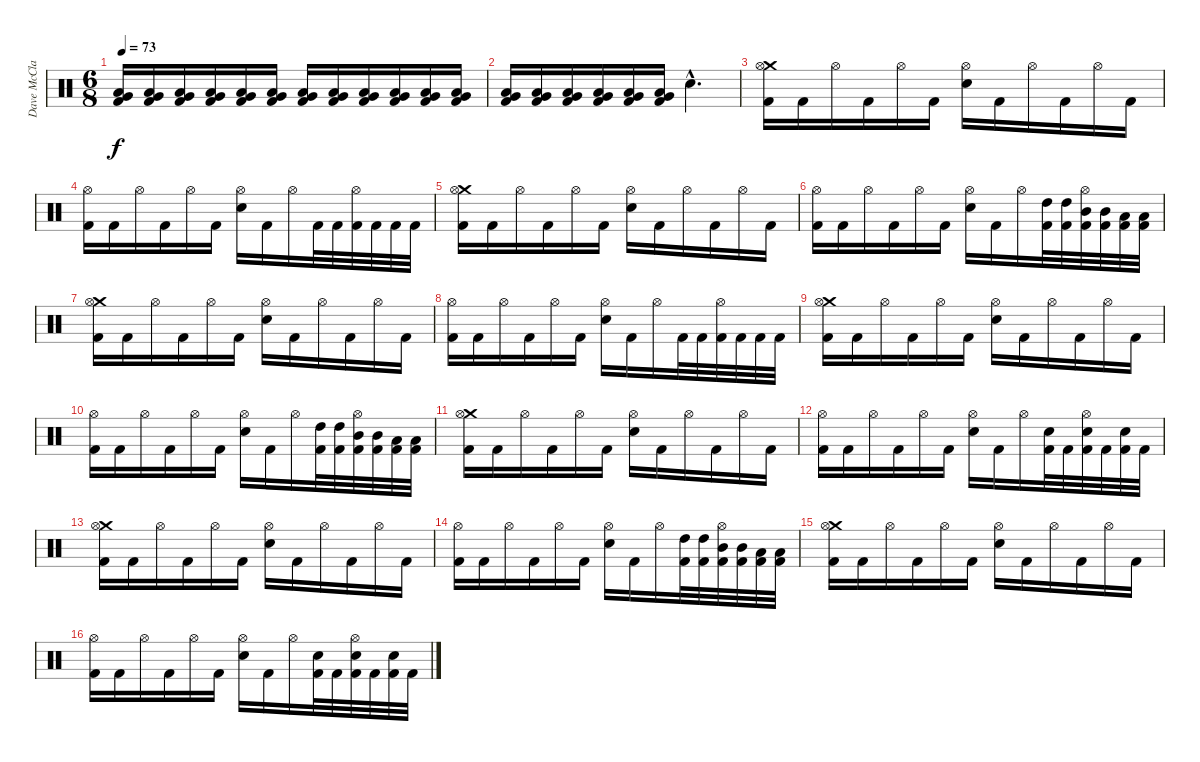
\track ("Dave McClain" "Dave McCla") {instrument percussion}
\staff {score}
\articulation defaults
\ts (6 8)
\tempo 73
\clef neutral
\ks c
("Very Low Tom (hit)" "Low Floor Tom (hit)" "Kick (hit) 2").16{dy f} ("Very Low Tom (hit)" "Low Floor Tom (hit)" "Kick (hit) 2").16 ("Very Low Tom (hit)" "Low Floor Tom (hit)" "Kick (hit) 2").16 ("Very Low Tom (hit)" "Low Floor Tom (hit)" "Kick (hit) 2").16 ("Very Low Tom (hit)" "Low Floor Tom (hit)" "Kick (hit) 2").16 ("Very Low Tom (hit)" "Low Floor Tom (hit)" "Kick (hit) 2").16 ("Very Low Tom (hit)" "Low Floor Tom (hit)" "Kick (hit) 2").16 ("Very Low Tom (hit)" "Low Floor Tom (hit)" "Kick (hit) 2").16 ("Very Low Tom (hit)" "Low Floor Tom (hit)" "Kick (hit) 2").16 ("Very Low Tom (hit)" "Low Floor Tom (hit)" "Kick (hit) 2").16 ("Very Low Tom (hit)" "Low Floor Tom (hit)" "Kick (hit) 2").16 ("Very Low Tom (hit)" "Low Floor Tom (hit)" "Kick (hit) 2").16 |
("Very Low Tom (hit)" "Low Floor Tom (hit)" "Kick (hit) 2").16 ("Very Low Tom (hit)" "Low Floor Tom (hit)" "Kick (hit) 2").16 ("Very Low Tom (hit)" "Low Floor Tom (hit)" "Kick (hit) 2").16 ("Very Low Tom (hit)" "Low Floor Tom (hit)" "Kick (hit) 2").16 ("Very Low Tom (hit)" "Low Floor Tom (hit)" "Kick (hit) 2").16 ("Very Low Tom (hit)" "Low Floor Tom (hit)" "Kick (hit) 2").16 "Snare (hit) 2"{hac}.4{d} |
("Crash medium (hit)" "Hi-Hat (open)" "Kick (hit) 2").16 "Kick (hit) 2".16 "Hi-Hat (open)".16 "Kick (hit) 2".16 "Hi-Hat (open)".16 "Kick (hit) 2".16 ("Hi-Hat (open)" "Snare (hit) 2").16 "Kick (hit) 2".16 "Hi-Hat (open)".16 "Kick (hit) 2".16 "Hi-Hat (open)".16 "Kick (hit) 2".16 |
("Hi-Hat (open)" "Kick (hit) 2").16 "Kick (hit) 2".16 "Hi-Hat (open)".16 "Kick (hit) 2".16 "Hi-Hat (open)".16 "Kick (hit) 2".16 ("Hi-Hat (open)" "Snare (hit) 2").16 "Kick (hit) 2".16 "Hi-Hat (open)".16 "Kick (hit) 2".32 "Kick (hit) 2".32 ("Hi-Hat (open)" "Kick (hit) 2").32 "Kick (hit) 2".32 "Kick (hit) 2".32 "Kick (hit) 2".32 |
("Crash medium (hit)" "Hi-Hat (open)" "Kick (hit) 2").16 "Kick (hit) 2".16 "Hi-Hat (open)".16 "Kick (hit) 2".16 "Hi-Hat (open)".16 "Kick (hit) 2".16 ("Hi-Hat (open)" "Snare (hit) 2").16 "Kick (hit) 2".16 "Hi-Hat (open)".16 "Kick (hit) 2".16 "Hi-Hat (open)".16 "Kick (hit) 2".16 |
("Hi-Hat (open)" "Kick (hit) 2").16 "Kick (hit) 2".16 "Hi-Hat (open)".16 "Kick (hit) 2".16 "Hi-Hat (open)".16 "Kick (hit) 2".16 ("Hi-Hat (open)" "Snare (hit) 2").16 "Kick (hit) 2".16 "Hi-Hat (open)".16 ("High Tom (hit)" "Kick (hit) 2").32 ("High Tom (hit)" "Kick (hit) 2").32 ("Hi-Hat (open)" "Mid Tom (hit)" "Kick (hit) 2").32 ("Mid Tom (hit)" "Kick (hit) 2").32 ("Low Tom (hit)" "Kick (hit) 2").32 ("Low Tom (hit)" "Kick (hit) 2").32 |
("Crash medium (hit)" "Hi-Hat (open)" "Kick (hit) 2").16 "Kick (hit) 2".16 "Hi-Hat (open)".16 "Kick (hit) 2".16 "Hi-Hat (open)".16 "Kick (hit) 2".16 ("Hi-Hat (open)" "Snare (hit) 2").16 "Kick (hit) 2".16 "Hi-Hat (open)".16 "Kick (hit) 2".16 "Hi-Hat (open)".16 "Kick (hit) 2".16 |
("Hi-Hat (open)" "Kick (hit) 2").16 "Kick (hit) 2".16 "Hi-Hat (open)".16 "Kick (hit) 2".16 "Hi-Hat (open)".16 "Kick (hit) 2".16 ("Hi-Hat (open)" "Snare (hit) 2").16 "Kick (hit) 2".16 "Hi-Hat (open)".16 "Kick (hit) 2".32 "Kick (hit) 2".32 ("Hi-Hat (open)" "Kick (hit) 2").32 "Kick (hit) 2".32 "Kick (hit) 2".32 "Kick (hit) 2".32 |
("Crash medium (hit)" "Hi-Hat (open)" "Kick (hit) 2").16 "Kick (hit) 2".16 "Hi-Hat (open)".16 "Kick (hit) 2".16 "Hi-Hat (open)".16 "Kick (hit) 2".16 ("Hi-Hat (open)" "Snare (hit) 2").16 "Kick (hit) 2".16 "Hi-Hat (open)".16 "Kick (hit) 2".16 "Hi-Hat (open)".16 "Kick (hit) 2".16 |
("Hi-Hat (open)" "Kick (hit) 2").16 "Kick (hit) 2".16 "Hi-Hat (open)".16 "Kick (hit) 2".16 "Hi-Hat (open)".16 "Kick (hit) 2".16 ("Hi-Hat (open)" "Snare (hit) 2").16 "Kick (hit) 2".16 "Hi-Hat (open)".16 ("High Tom (hit)" "Kick (hit) 2").32 ("High Tom (hit)" "Kick (hit) 2").32 ("Hi-Hat (open)" "Mid Tom (hit)" "Kick (hit) 2").32 ("Mid Tom (hit)" "Kick (hit) 2").32 ("Low Tom (hit)" "Kick (hit) 2").32 ("Low Tom (hit)" "Kick (hit) 2").32 |
("Crash medium (hit)" "Hi-Hat (open)" "Kick (hit) 2").16 "Kick (hit) 2".16 "Hi-Hat (open)".16 "Kick (hit) 2".16 "Hi-Hat (open)".16 "Kick (hit) 2".16 ("Hi-Hat (open)" "Snare (hit) 2").16 "Kick (hit) 2".16 "Hi-Hat (open)".16 "Kick (hit) 2".16 "Hi-Hat (open)".16 "Kick (hit) 2".16 |
("Hi-Hat (open)" "Kick (hit) 2").16 "Kick (hit) 2".16 "Hi-Hat (open)".16 "Kick (hit) 2".16 "Hi-Hat (open)".16 "Kick (hit) 2".16 ("Hi-Hat (open)" "Snare (hit) 2").16 "Kick (hit) 2".16 "Hi-Hat (open)".16 ("Snare (hit) 2" "Kick (hit) 2").32 "Kick (hit) 2".32 ("Hi-Hat (open)" "Snare (hit) 2" "Kick (hit) 2").32 "Kick (hit) 2".32 ("Snare (hit) 2" "Kick (hit) 2").32 "Kick (hit) 2".32 |
("Crash medium (hit)" "Hi-Hat (open)" "Kick (hit) 2").16 "Kick (hit) 2".16 "Hi-Hat (open)".16 "Kick (hit) 2".16 "Hi-Hat (open)".16 "Kick (hit) 2".16 ("Hi-Hat (open)" "Snare (hit) 2").16 "Kick (hit) 2".16 "Hi-Hat (open)".16 "Kick (hit) 2".16 "Hi-Hat (open)".16 "Kick (hit) 2".16 |
("Hi-Hat (open)" "Kick (hit) 2").16 "Kick (hit) 2".16 "Hi-Hat (open)".16 "Kick (hit) 2".16 "Hi-Hat (open)".16 "Kick (hit) 2".16 ("Hi-Hat (open)" "Snare (hit) 2").16 "Kick (hit) 2".16 "Hi-Hat (open)".16 ("High Tom (hit)" "Kick (hit) 2").32 ("High Tom (hit)" "Kick (hit) 2").32 ("Hi-Hat (open)" "Mid Tom (hit)" "Kick (hit) 2").32 ("Mid Tom (hit)" "Kick (hit) 2").32 ("Low Tom (hit)" "Kick (hit) 2").32 ("Low Tom (hit)" "Kick (hit) 2").32 |
("Crash medium (hit)" "Hi-Hat (open)" "Kick (hit) 2").16 "Kick (hit) 2".16 "Hi-Hat (open)".16 "Kick (hit) 2".16 "Hi-Hat (open)".16 "Kick (hit) 2".16 ("Hi-Hat (open)" "Snare (hit) 2").16 "Kick (hit) 2".16 "Hi-Hat (open)".16 "Kick (hit) 2".16 "Hi-Hat (open)".16 "Kick (hit) 2".16 |
("Hi-Hat (open)" "Kick (hit) 2").16 "Kick (hit) 2".16 "Hi-Hat (open)".16 "Kick (hit) 2".16 "Hi-Hat (open)".16 "Kick (hit) 2".16 ("Hi-Hat (open)" "Snare (hit) 2").16 "Kick (hit) 2".16 "Hi-Hat (open)".16 ("Snare (hit) 2" "Kick (hit) 2").32 "Kick (hit) 2".32 ("Hi-Hat (open)" "Snare (hit) 2" "Kick (hit) 2").32 "Kick (hit) 2".32 ("Snare (hit) 2" "Kick (hit) 2").32 "Kick (hit) 2".32
